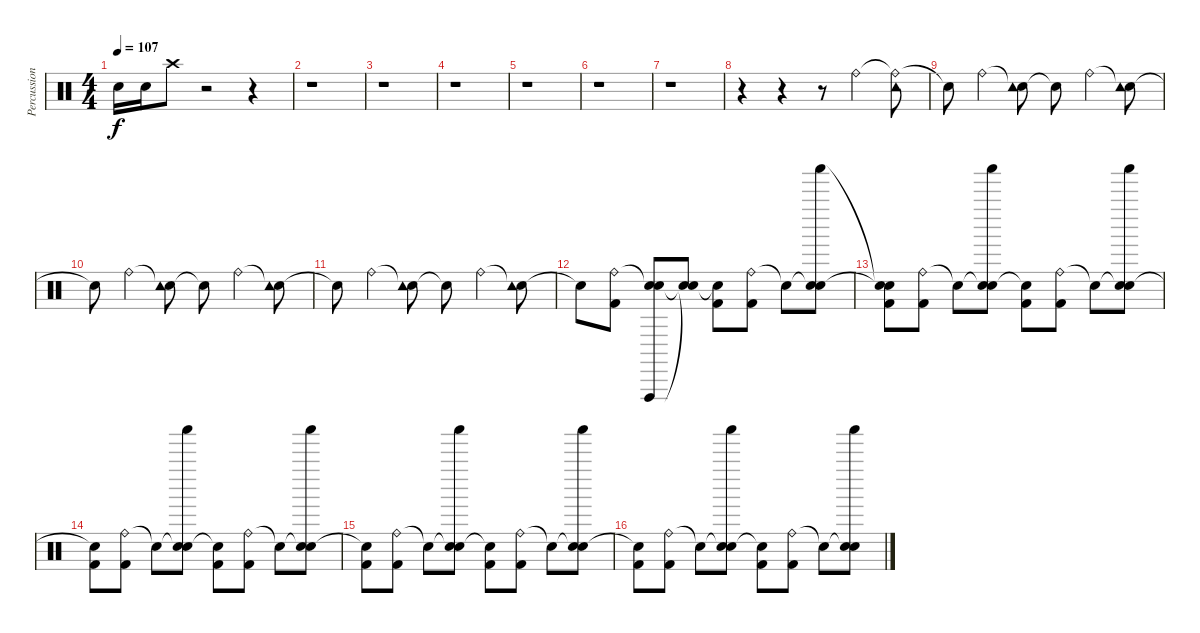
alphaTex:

\track ("Percussion" "Percussion") {instrument percussion}
\staff {score}
\articulation defaults
\ts (4 4)
\tempo 107
\clef neutral
\ks c "Electric Snare (hit)".16{dy f} "Electric Snare (hit)".16 "Crash high (hit)".8
r.2 r.4 |
r.1 |
r.1 |
r.1 |
r.1 |
r.1 |
r.1 |
r.4 r.4 r.8 "Ride (bell)".4 ("Ride (bell)"{t} "Tambourine (hit)").8 |
"Snare (hit)"{t}.8 "Ride (bell)".4 ("Snare (hit)"{t} "Tambourine (hit)").8 "Snare (hit)"{t}.8 "Ride (bell)".4 ("Snare (hit)"{t} "Tambourine (hit)").8 |
"Snare (hit)"{t}.8 "Ride (bell)".4 ("Snare (hit)"{t} "Tambourine (hit)").8 "Snare (hit)"{t}.8 "Ride (bell)".4 ("Snare (hit)"{t} "Tambourine (hit)").8 |
"Snare (hit)"{t}.8 "Ride (bell)".4 ("Snare (hit)"{t} "Tambourine (hit)").8 "Snare (hit)"{t}.8 "Ride (bell)".4 ("Snare (hit)"{t} "Tambourine (hit)").8 |
"Snare (hit)"{t}.8 ("Ride (bell)" "Kick (hit) 2").8 ("Snare (hit)"{t} "Vibraslap (hit)" "Electric Snare (hit)").8 ("Snare (hit)"{t} "Snare (hit)"{t}).8 ("Snare (hit)"{t} "Kick (hit) 2").8 ("Ride (bell)" "Kick (hit) 2").8 "Snare (hit)"{t}.8 ("Snare (hit)"{t} "Shaker (hit)" "Electric Snare (hit)").8 |
("Snare (hit)"{t} "Snare (hit)"{t} "Kick (hit) 2").8 ("Ride (bell)" "Kick (hit) 2").8 "Snare (hit)"{t}.8 ("Snare (hit)"{t} "Shaker (hit)" "Electric Snare (hit)").8 ("Snare (hit)"{t} "Kick (hit) 2").8 ("Ride (bell)" "Kick (hit) 2").8 "Snare (hit)"{t}.8 ("Snare (hit)"{t} "Shaker (hit)" "Electric Snare (hit)").8 |
("Snare (hit)"{t} "Kick (hit) 2").8 ("Ride (bell)" "Kick (hit) 2").8 "Snare (hit)"{t}.8 ("Snare (hit)"{t} "Shaker (hit)" "Electric Snare (hit)").8 ("Snare (hit)"{t} "Kick (hit) 2").8 ("Ride (bell)" "Kick (hit) 2").8 "Snare (hit)"{t}.8 ("Snare (hit)"{t} "Shaker (hit)" "Electric Snare (hit)").8 |
("Snare (hit)"{t} "Kick (hit) 2").8 ("Ride (bell)" "Kick (hit) 2").8 "Snare (hit)"{t}.8 ("Snare (hit)"{t} "Shaker (hit)" "Electric Snare (hit)").8 ("Snare (hit)"{t} "Kick (hit) 2").8 ("Ride (bell)" "Kick (hit) 2").8 "Snare (hit)"{t}.8 ("Snare (hit)"{t} "Shaker (hit)" "Electric Snare (hit)").8 |
("Snare (hit)"{t} "Kick (hit) 2").8 ("Ride (bell)" "Kick (hit) 2").8 "Snare (hit)"{t}.8 ("Snare (hit)"{t} "Shaker (hit)" "Electric Snare (hit)").8 ("Snare (hit)"{t} "Kick (hit) 2").8 ("Ride (bell)" "Kick (hit) 2").8 "Snare (hit)"{t}.8 ("Snare (hit)"{t} "Shaker (hit)" "Electric Snare (hit)").8
